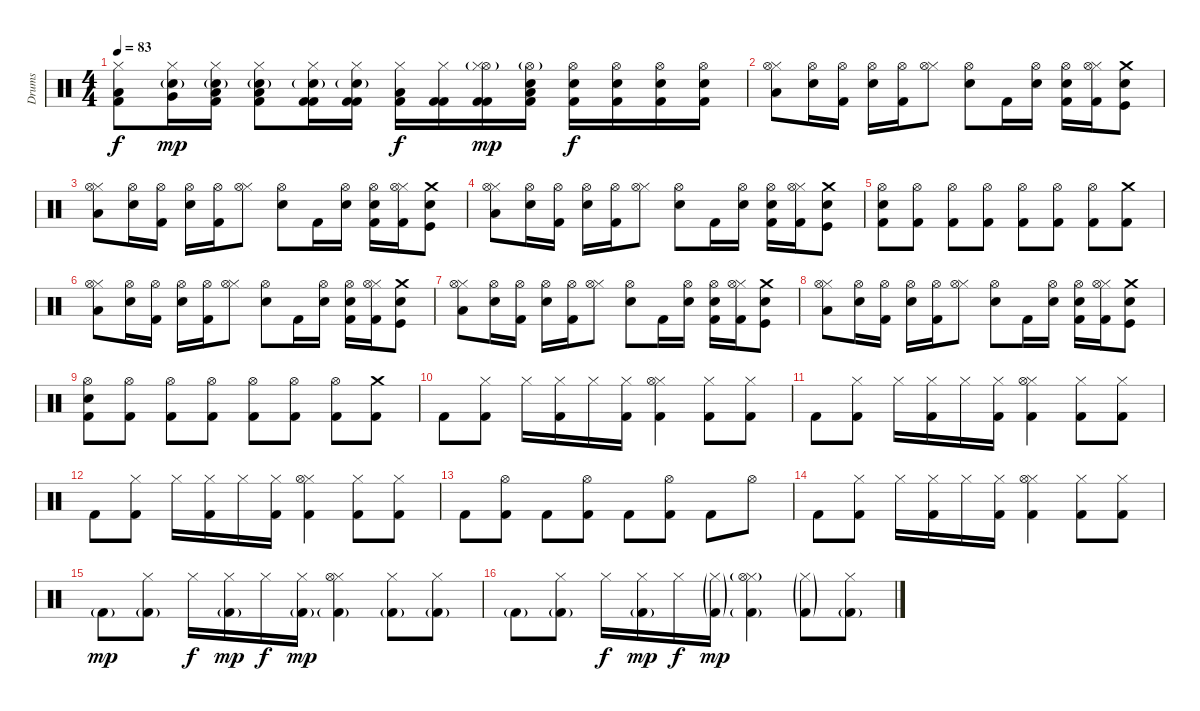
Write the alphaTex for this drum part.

\track ("Drums" "Drums") {instrument percussion}
\staff {score}
\articulation defaults
\ts (4 4)
\tempo 83
\clef neutral
\ks c
("Hi-Hat (closed)" "Low Tom (hit)" "Kick (hit) 2").8{dy f} ("Hi-Hat (closed)" "Very Low Tom (hit)" "Snare (hit) 2"{g}).16{dy mp} ("Hi-Hat (closed)" "Low Floor Tom (hit)" "Kick (hit) 2" "Snare (hit) 2"{g}).16 ("Hi-Hat (closed)" "Low Floor Tom (hit)" "Kick (hit) 2" "Snare (hit) 2"{g}).8 ("Hi-Hat (closed)" "Kick (hit) 2" "Kick (hit) 2" "Snare (hit) 2"{g}).16 ("Hi-Hat (closed)" "Kick (hit) 2" "Kick (hit) 2" "Snare (hit) 2"{g}).16 ("Hi-Hat (closed)" "Low Floor Tom (hit)" "Kick (hit) 2").16{dy f} ("Hi-Hat (closed)" "Kick (hit) 2" "Kick (hit) 2").16 ("Hi-Hat (open)"{g} "Hi-Hat (closed)" "Kick (hit) 2" "Kick (hit) 2").16{dy mp} ("Hi-Hat (open)"{g} "Snare (hit) 2" "Low Floor Tom (hit)" "Kick (hit) 2").16 ("Hi-Hat (open)" "Snare (hit) 2" "Kick (hit) 2").16{dy f} ("Hi-Hat (open)" "Snare (hit) 2" "Kick (hit) 2").16 ("Hi-Hat (open)" "Snare (hit) 2" "Kick (hit) 2").16 ("Hi-Hat (open)" "Snare (hit) 2" "Kick (hit) 2").16 |
("Hi-Hat (closed)" "Low Floor Tom (hit)" "Hi-Hat (open)").8 ("Snare (hit) 2" "Hi-Hat (open)").16 ("Kick (hit) 2" "Hi-Hat (open)").16 ("Snare (hit) 2" "Hi-Hat (open)").16 ("Kick (hit) 2" "Hi-Hat (open)").16 ("Hi-Hat (closed)" "Hi-Hat (open)").8 ("Snare (hit) 2" "Hi-Hat (open)").8 "Kick (hit) 2".16 ("Snare (hit) 2" "Hi-Hat (open)").16 ("Kick (hit) 2" "Hi-Hat (open)" "Snare (hit) 2").16 ("Kick (hit) 2" "Hi-Hat (closed)" "Hi-Hat (open)").16 ("Crash medium (hit)" "Kick (hit)" "Snare (hit) 2").8 |
("Hi-Hat (closed)" "Low Floor Tom (hit)" "Hi-Hat (open)").8 ("Snare (hit) 2" "Hi-Hat (open)").16 ("Kick (hit) 2" "Hi-Hat (open)").16 ("Snare (hit) 2" "Hi-Hat (open)").16 ("Kick (hit) 2" "Hi-Hat (open)").16 ("Hi-Hat (closed)" "Hi-Hat (open)").8 ("Snare (hit) 2" "Hi-Hat (open)").8 "Kick (hit) 2".16 ("Snare (hit) 2" "Hi-Hat (open)").16 ("Kick (hit) 2" "Hi-Hat (open)" "Snare (hit) 2").16 ("Kick (hit) 2" "Hi-Hat (closed)" "Hi-Hat (open)").16 ("Crash medium (hit)" "Kick (hit)" "Snare (hit) 2").8 |
("Hi-Hat (closed)" "Low Floor Tom (hit)" "Hi-Hat (open)").8 ("Snare (hit) 2" "Hi-Hat (open)").16 ("Kick (hit) 2" "Hi-Hat (open)").16 ("Snare (hit) 2" "Hi-Hat (open)").16 ("Kick (hit) 2" "Hi-Hat (open)").16 ("Hi-Hat (closed)" "Hi-Hat (open)").8 ("Snare (hit) 2" "Hi-Hat (open)").8 "Kick (hit) 2".16 ("Snare (hit) 2" "Hi-Hat (open)").16 ("Kick (hit) 2" "Hi-Hat (open)" "Snare (hit) 2").16 ("Kick (hit) 2" "Hi-Hat (closed)" "Hi-Hat (open)").16 ("Crash medium (hit)" "Kick (hit)" "Snare (hit) 2").8 |
("Hi-Hat (open)" "Kick (hit) 2" "Snare (hit) 2").8 ("Hi-Hat (open)" "Kick (hit) 2").8 ("Hi-Hat (open)" "Kick (hit) 2").8 ("Hi-Hat (open)" "Kick (hit) 2").8 ("Hi-Hat (open)" "Kick (hit) 2").8 ("Hi-Hat (open)" "Kick (hit) 2").8 ("Hi-Hat (open)" "Kick (hit) 2").8 ("Crash medium (hit)" "Kick (hit) 2").8 |
("Hi-Hat (closed)" "Low Floor Tom (hit)" "Hi-Hat (open)").8 ("Snare (hit) 2" "Hi-Hat (open)").16 ("Kick (hit) 2" "Hi-Hat (open)").16 ("Snare (hit) 2" "Hi-Hat (open)").16 ("Kick (hit) 2" "Hi-Hat (open)").16 ("Hi-Hat (closed)" "Hi-Hat (open)").8 ("Snare (hit) 2" "Hi-Hat (open)").8 "Kick (hit) 2".16 ("Snare (hit) 2" "Hi-Hat (open)").16 ("Kick (hit) 2" "Hi-Hat (open)" "Snare (hit) 2").16 ("Kick (hit) 2" "Hi-Hat (closed)" "Hi-Hat (open)").16 ("Crash medium (hit)" "Kick (hit)" "Snare (hit) 2").8 |
("Hi-Hat (closed)" "Low Floor Tom (hit)" "Hi-Hat (open)").8 ("Snare (hit) 2" "Hi-Hat (open)").16 ("Kick (hit) 2" "Hi-Hat (open)").16 ("Snare (hit) 2" "Hi-Hat (open)").16 ("Kick (hit) 2" "Hi-Hat (open)").16 ("Hi-Hat (closed)" "Hi-Hat (open)").8 ("Snare (hit) 2" "Hi-Hat (open)").8 "Kick (hit) 2".16 ("Snare (hit) 2" "Hi-Hat (open)").16 ("Kick (hit) 2" "Hi-Hat (open)" "Snare (hit) 2").16 ("Kick (hit) 2" "Hi-Hat (closed)" "Hi-Hat (open)").16 ("Crash medium (hit)" "Kick (hit)" "Snare (hit) 2").8 |
("Hi-Hat (closed)" "Low Floor Tom (hit)" "Hi-Hat (open)").8 ("Snare (hit) 2" "Hi-Hat (open)").16 ("Kick (hit) 2" "Hi-Hat (open)").16 ("Snare (hit) 2" "Hi-Hat (open)").16 ("Kick (hit) 2" "Hi-Hat (open)").16 ("Hi-Hat (closed)" "Hi-Hat (open)").8 ("Snare (hit) 2" "Hi-Hat (open)").8 "Kick (hit) 2".16 ("Snare (hit) 2" "Hi-Hat (open)").16 ("Kick (hit) 2" "Hi-Hat (open)" "Snare (hit) 2").16 ("Kick (hit) 2" "Hi-Hat (closed)" "Hi-Hat (open)").16 ("Crash medium (hit)" "Kick (hit)" "Snare (hit) 2").8 |
("Hi-Hat (open)" "Kick (hit) 2" "Snare (hit) 2").8 ("Hi-Hat (open)" "Kick (hit) 2").8 ("Hi-Hat (open)" "Kick (hit) 2").8 ("Hi-Hat (open)" "Kick (hit) 2").8 ("Hi-Hat (open)" "Kick (hit) 2").8 ("Hi-Hat (open)" "Kick (hit) 2").8 ("Hi-Hat (open)" "Kick (hit) 2").8 ("Crash medium (hit)" "Kick (hit) 2").8 |
"Kick (hit) 2".8 ("Kick (hit) 2" "Hi-Hat (closed)").8 "Hi-Hat (closed)".16 ("Hi-Hat (closed)" "Kick (hit) 2").16 "Hi-Hat (closed)".16 ("Hi-Hat (closed)" "Kick (hit) 2").16 ("Hi-Hat (closed)" "Hi-Hat (open)" "Kick (hit) 2").4 ("Hi-Hat (closed)" "Kick (hit) 2").8 ("Hi-Hat (closed)" "Kick (hit) 2").8 |
"Kick (hit) 2".8 ("Kick (hit) 2" "Hi-Hat (closed)").8 "Hi-Hat (closed)".16 ("Hi-Hat (closed)" "Kick (hit) 2").16 "Hi-Hat (closed)".16 ("Hi-Hat (closed)" "Kick (hit) 2").16 ("Hi-Hat (closed)" "Hi-Hat (open)" "Kick (hit) 2").4 ("Hi-Hat (closed)" "Kick (hit) 2").8 ("Hi-Hat (closed)" "Kick (hit) 2").8 |
"Kick (hit) 2".8 ("Kick (hit) 2" "Hi-Hat (closed)").8 "Hi-Hat (closed)".16 ("Hi-Hat (closed)" "Kick (hit) 2").16 "Hi-Hat (closed)".16 ("Hi-Hat (closed)" "Kick (hit) 2").16 ("Hi-Hat (closed)" "Hi-Hat (open)" "Kick (hit) 2").4 ("Hi-Hat (closed)" "Kick (hit) 2").8 ("Hi-Hat (closed)" "Kick (hit) 2").8 |
"Kick (hit) 2".8 ("Kick (hit) 2" "Hi-Hat (open)").8 "Kick (hit) 2".8 ("Kick (hit) 2" "Hi-Hat (open)").8 "Kick (hit) 2".8 ("Kick (hit) 2" "Hi-Hat (open)").8 "Kick (hit) 2".8 "Hi-Hat (open)".8 |
"Kick (hit) 2".8 ("Kick (hit) 2" "Hi-Hat (closed)").8 "Hi-Hat (closed)".16 ("Hi-Hat (closed)" "Kick (hit) 2").16 "Hi-Hat (closed)".16 ("Hi-Hat (closed)" "Kick (hit) 2").16 ("Hi-Hat (closed)" "Hi-Hat (open)" "Kick (hit) 2").4 ("Hi-Hat (closed)" "Kick (hit) 2").8 ("Hi-Hat (closed)" "Kick (hit) 2").8 |
"Kick (hit) 2"{g}.8{dy mp} ("Kick (hit) 2"{g} "Hi-Hat (closed)").8 "Hi-Hat (closed)".16{dy f} ("Hi-Hat (closed)" "Kick (hit) 2"{g}).16{dy mp} "Hi-Hat (closed)".16{dy f} ("Hi-Hat (closed)" "Kick (hit) 2"{g}).16{dy mp} ("Hi-Hat (closed)" "Hi-Hat (open)" "Kick (hit) 2"{g}).4 ("Hi-Hat (closed)" "Kick (hit) 2"{g}).8 ("Hi-Hat (closed)" "Kick (hit) 2"{g}).8 |
"Kick (hit) 2"{g}.8 ("Kick (hit) 2"{g} "Hi-Hat (closed)").8 "Hi-Hat (closed)".16{dy f} ("Hi-Hat (closed)" "Kick (hit) 2"{g}).16{dy mp} "Hi-Hat (closed)".16{dy f} ("Hi-Hat (closed)"{g} "Kick (hit) 2"{g}).16{dy mp} ("Hi-Hat (closed)"{g} "Hi-Hat (open)" "Kick (hit) 2"{g}).4 ("Hi-Hat (closed)"{g} "Kick (hit) 2"{g}).8 ("Hi-Hat (closed)" "Kick (hit) 2"{g}).8
